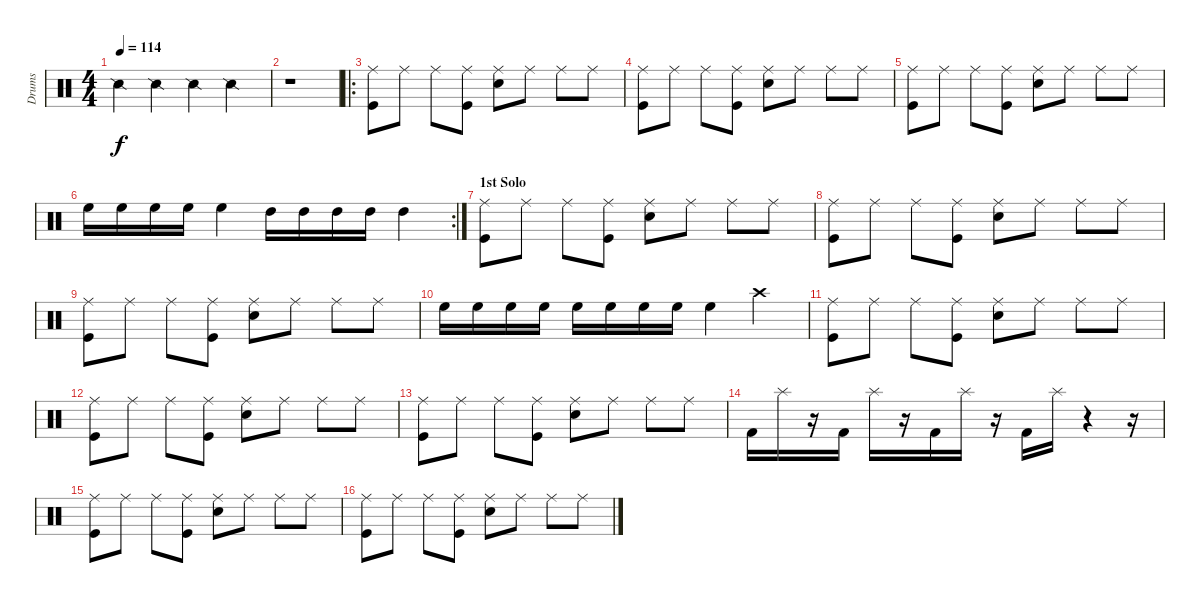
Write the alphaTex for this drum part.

\track ("Drums" "Drums") {instrument percussion}
\staff {score}
\articulation defaults
\ts (4 4)
\tempo 114
\clef neutral
\ks c "Snare (side stick) 2".4{dy f} "Snare (side stick) 2".4 "Snare (side stick) 2".4 "Snare (side stick) 2".4
|
r.1 |
\ro
("Ride (middle)" "Kick (hit)").8 "Ride (middle)".8 "Ride (middle)".8 ("Ride (middle)" "Kick (hit)").8 ("Ride (middle)" "Snare (hit) 2").8 "Ride (middle)".8 "Ride (middle)".8 "Ride (middle)".8 |
("Ride (middle)" "Kick (hit)").8 "Ride (middle)".8 "Ride (middle)".8 ("Ride (middle)" "Kick (hit)").8 ("Ride (middle)" "Snare (hit) 2").8 "Ride (middle)".8 "Ride (middle)".8 "Ride (middle)".8 |
("Ride (middle)" "Kick (hit)").8 "Ride (middle)".8 "Ride (middle)".8 ("Ride (middle)" "Kick (hit)").8 ("Ride (middle)" "Snare (hit) 2").8 "Ride (middle)".8 "Ride (middle)".8 "Ride (middle)".8 |
\rc 2 "High Floor Tom (hit)".16 "High Floor Tom (hit)".16 "High Floor Tom (hit)".16 "High Floor Tom (hit)".16 "High Floor Tom (hit)".4 "High Tom (hit)".16 "High Tom (hit)".16 "High Tom (hit)".16 "High Tom (hit)".16 "High Tom (hit)".4
|
\section ("" "1st Solo")
("Ride (middle)" "Kick (hit)").8 "Ride (middle)".8 "Ride (middle)".8 ("Ride (middle)" "Kick (hit)").8 ("Ride (middle)" "Snare (hit) 2").8 "Ride (middle)".8 "Ride (middle)".8 "Ride (middle)".8 |
("Ride (middle)" "Kick (hit)").8 "Ride (middle)".8 "Ride (middle)".8 ("Ride (middle)" "Kick (hit)").8 ("Ride (middle)" "Snare (hit) 2").8 "Ride (middle)".8 "Ride (middle)".8 "Ride (middle)".8 |
("Ride (middle)" "Kick (hit)").8 "Ride (middle)".8 "Ride (middle)".8 ("Ride (middle)" "Kick (hit)").8 ("Ride (middle)" "Snare (hit) 2").8 "Ride (middle)".8 "Ride (middle)".8 "Ride (middle)".8 |
"High Floor Tom (hit)".16 "High Floor Tom (hit)".16 "High Floor Tom (hit)".16 "High Floor Tom (hit)".16 "High Floor Tom (hit)".16 "High Floor Tom (hit)".16 "High Floor Tom (hit)".16 "High Floor Tom (hit)".16 "High Floor Tom (hit)".4 "Crash high (hit)".4 |
("Ride (middle)" "Kick (hit)").8 "Ride (middle)".8 "Ride (middle)".8 ("Ride (middle)" "Kick (hit)").8 ("Ride (middle)" "Snare (hit) 2").8 "Ride (middle)".8 "Ride (middle)".8 "Ride (middle)".8 |
("Ride (middle)" "Kick (hit)").8 "Ride (middle)".8 "Ride (middle)".8 ("Ride (middle)" "Kick (hit)").8 ("Ride (middle)" "Snare (hit) 2").8 "Ride (middle)".8 "Ride (middle)".8 "Ride (middle)".8 |
("Ride (middle)" "Kick (hit)").8 "Ride (middle)".8 "Ride (middle)".8 ("Ride (middle)" "Kick (hit)").8 ("Ride (middle)" "Snare (hit) 2").8 "Ride (middle)".8 "Ride (middle)".8 "Ride (middle)".8 |
"Kick (hit) 2".16 "Splash (hit)".16 r.16 "Kick (hit) 2".16 "Splash (hit)".16 r.16 "Kick (hit) 2".16 "Splash (hit)".16 r.16 "Kick (hit) 2".16 "Splash (hit)".16 r.4 r.16 |
("Ride (middle)" "Kick (hit)").8 "Ride (middle)".8 "Ride (middle)".8 ("Ride (middle)" "Kick (hit)").8 ("Ride (middle)" "Snare (hit) 2").8 "Ride (middle)".8 "Ride (middle)".8 "Ride (middle)".8 |
("Ride (middle)" "Kick (hit)").8 "Ride (middle)".8 "Ride (middle)".8 ("Ride (middle)" "Kick (hit)").8 ("Ride (middle)" "Snare (hit) 2").8 "Ride (middle)".8 "Ride (middle)".8 "Ride (middle)".8
